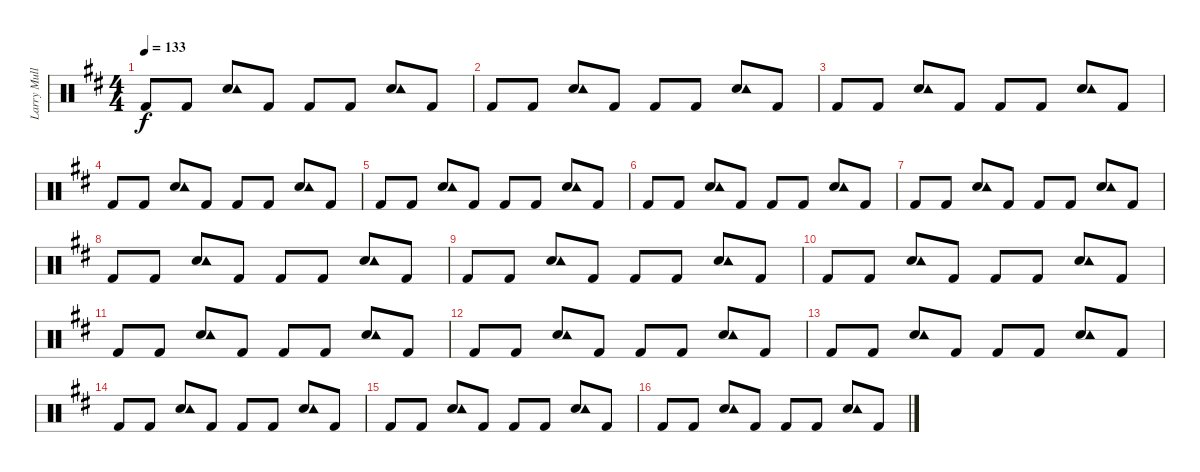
\track ("Larry Mullen Jr." "Larry Mull") {instrument percussion}
\staff {score}
\articulation defaults
\ts (4 4)
\tempo 133
\clef neutral
\ks d "Kick (hit) 2".8{dy f} "Kick (hit) 2".8
("Snare (hit) 2" "Tambourine (hit)").8 "Kick (hit) 2".8 "Kick (hit) 2".8 "Kick (hit) 2".8 ("Snare (hit) 2" "Tambourine (hit)").8 "Kick (hit) 2".8 |
"Kick (hit) 2".8 "Kick (hit) 2".8 ("Snare (hit) 2" "Tambourine (hit)").8 "Kick (hit) 2".8 "Kick (hit) 2".8 "Kick (hit) 2".8 ("Snare (hit) 2" "Tambourine (hit)").8 "Kick (hit) 2".8 |
"Kick (hit) 2".8 "Kick (hit) 2".8 ("Snare (hit) 2" "Tambourine (hit)").8 "Kick (hit) 2".8 "Kick (hit) 2".8 "Kick (hit) 2".8 ("Snare (hit) 2" "Tambourine (hit)").8 "Kick (hit) 2".8 |
"Kick (hit) 2".8 "Kick (hit) 2".8 ("Snare (hit) 2" "Tambourine (hit)").8 "Kick (hit) 2".8 "Kick (hit) 2".8 "Kick (hit) 2".8 ("Snare (hit) 2" "Tambourine (hit)").8 "Kick (hit) 2".8 |
"Kick (hit) 2".8 "Kick (hit) 2".8 ("Snare (hit) 2" "Tambourine (hit)").8 "Kick (hit) 2".8 "Kick (hit) 2".8 "Kick (hit) 2".8 ("Snare (hit) 2" "Tambourine (hit)").8 "Kick (hit) 2".8 |
"Kick (hit) 2".8 "Kick (hit) 2".8 ("Snare (hit) 2" "Tambourine (hit)").8 "Kick (hit) 2".8 "Kick (hit) 2".8 "Kick (hit) 2".8 ("Snare (hit) 2" "Tambourine (hit)").8 "Kick (hit) 2".8 |
"Kick (hit) 2".8 "Kick (hit) 2".8 ("Snare (hit) 2" "Tambourine (hit)").8 "Kick (hit) 2".8 "Kick (hit) 2".8 "Kick (hit) 2".8 ("Snare (hit) 2" "Tambourine (hit)").8 "Kick (hit) 2".8 |
"Kick (hit) 2".8 "Kick (hit) 2".8 ("Snare (hit) 2" "Tambourine (hit)").8 "Kick (hit) 2".8 "Kick (hit) 2".8 "Kick (hit) 2".8 ("Snare (hit) 2" "Tambourine (hit)").8 "Kick (hit) 2".8 |
"Kick (hit) 2".8 "Kick (hit) 2".8 ("Snare (hit) 2" "Tambourine (hit)").8 "Kick (hit) 2".8 "Kick (hit) 2".8 "Kick (hit) 2".8 ("Snare (hit) 2" "Tambourine (hit)").8 "Kick (hit) 2".8 |
"Kick (hit) 2".8 "Kick (hit) 2".8 ("Snare (hit) 2" "Tambourine (hit)").8 "Kick (hit) 2".8 "Kick (hit) 2".8 "Kick (hit) 2".8 ("Snare (hit) 2" "Tambourine (hit)").8 "Kick (hit) 2".8 |
"Kick (hit) 2".8 "Kick (hit) 2".8 ("Snare (hit) 2" "Tambourine (hit)").8 "Kick (hit) 2".8 "Kick (hit) 2".8 "Kick (hit) 2".8 ("Snare (hit) 2" "Tambourine (hit)").8 "Kick (hit) 2".8 |
"Kick (hit) 2".8 "Kick (hit) 2".8 ("Snare (hit) 2" "Tambourine (hit)").8 "Kick (hit) 2".8 "Kick (hit) 2".8 "Kick (hit) 2".8 ("Snare (hit) 2" "Tambourine (hit)").8 "Kick (hit) 2".8 |
"Kick (hit) 2".8 "Kick (hit) 2".8 ("Snare (hit) 2" "Tambourine (hit)").8 "Kick (hit) 2".8 "Kick (hit) 2".8 "Kick (hit) 2".8 ("Snare (hit) 2" "Tambourine (hit)").8 "Kick (hit) 2".8 |
"Kick (hit) 2".8 "Kick (hit) 2".8 ("Snare (hit) 2" "Tambourine (hit)").8 "Kick (hit) 2".8 "Kick (hit) 2".8 "Kick (hit) 2".8 ("Snare (hit) 2" "Tambourine (hit)").8 "Kick (hit) 2".8 |
"Kick (hit) 2".8 "Kick (hit) 2".8 ("Snare (hit) 2" "Tambourine (hit)").8 "Kick (hit) 2".8 "Kick (hit) 2".8 "Kick (hit) 2".8 ("Snare (hit) 2" "Tambourine (hit)").8 "Kick (hit) 2".8 |
"Kick (hit) 2".8 "Kick (hit) 2".8 ("Snare (hit) 2" "Tambourine (hit)").8 "Kick (hit) 2".8 "Kick (hit) 2".8 "Kick (hit) 2".8 ("Snare (hit) 2" "Tambourine (hit)").8 "Kick (hit) 2".8
